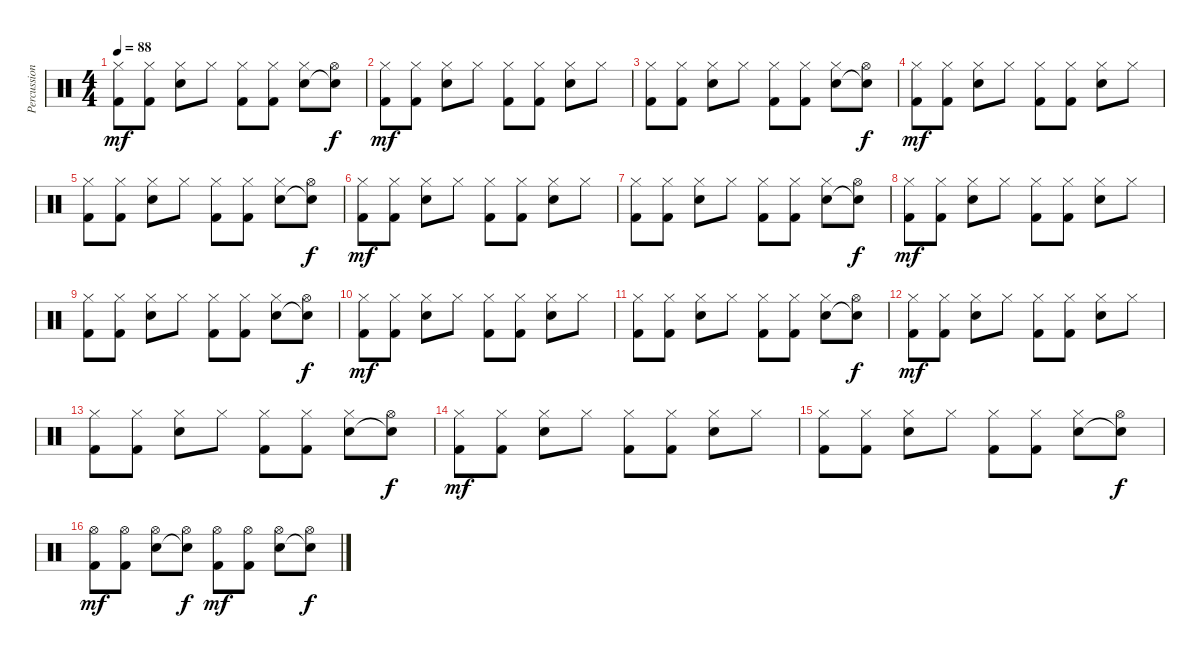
\track ("Percussions" "Percussion") {instrument percussion}
\staff {score}
\articulation defaults
\ts (4 4)
\tempo 88
\clef neutral
\ks c
("Kick (hit) 2" "Hi-Hat (closed)").8{dy mf} ("Kick (hit) 2" "Hi-Hat (closed)").8 ("Snare (hit) 2" "Hi-Hat (closed)").8 "Hi-Hat (closed)".8 ("Kick (hit) 2" "Hi-Hat (closed)").8 ("Kick (hit) 2" "Hi-Hat (closed)").8 ("Snare (hit) 2" "Hi-Hat (closed)").8 ("Snare (hit)"{t} "Hi-Hat (open)").8{dy f} |
("Kick (hit) 2" "Hi-Hat (closed)").8{dy mf} ("Kick (hit) 2" "Hi-Hat (closed)").8 ("Snare (hit) 2" "Hi-Hat (closed)").8 "Hi-Hat (closed)".8 ("Kick (hit) 2" "Hi-Hat (closed)").8 ("Kick (hit) 2" "Hi-Hat (closed)").8 ("Snare (hit) 2" "Hi-Hat (closed)").8 "Hi-Hat (closed)".8 |
("Kick (hit) 2" "Hi-Hat (closed)").8 ("Kick (hit) 2" "Hi-Hat (closed)").8 ("Snare (hit) 2" "Hi-Hat (closed)").8 "Hi-Hat (closed)".8 ("Kick (hit) 2" "Hi-Hat (closed)").8 ("Kick (hit) 2" "Hi-Hat (closed)").8 ("Snare (hit) 2" "Hi-Hat (closed)").8 ("Snare (hit)"{t} "Hi-Hat (open)").8{dy f} |
("Kick (hit) 2" "Hi-Hat (closed)").8{dy mf} ("Kick (hit) 2" "Hi-Hat (closed)").8 ("Snare (hit) 2" "Hi-Hat (closed)").8 "Hi-Hat (closed)".8 ("Kick (hit) 2" "Hi-Hat (closed)").8 ("Kick (hit) 2" "Hi-Hat (closed)").8 ("Snare (hit) 2" "Hi-Hat (closed)").8 "Hi-Hat (closed)".8 |
("Kick (hit) 2" "Hi-Hat (closed)").8 ("Kick (hit) 2" "Hi-Hat (closed)").8 ("Snare (hit) 2" "Hi-Hat (closed)").8 "Hi-Hat (closed)".8 ("Kick (hit) 2" "Hi-Hat (closed)").8 ("Kick (hit) 2" "Hi-Hat (closed)").8 ("Snare (hit) 2" "Hi-Hat (closed)").8 ("Snare (hit)"{t} "Hi-Hat (open)").8{dy f} |
("Kick (hit) 2" "Hi-Hat (closed)").8{dy mf} ("Kick (hit) 2" "Hi-Hat (closed)").8 ("Snare (hit) 2" "Hi-Hat (closed)").8 "Hi-Hat (closed)".8 ("Kick (hit) 2" "Hi-Hat (closed)").8 ("Kick (hit) 2" "Hi-Hat (closed)").8 ("Snare (hit) 2" "Hi-Hat (closed)").8 "Hi-Hat (closed)".8 |
("Kick (hit) 2" "Hi-Hat (closed)").8 ("Kick (hit) 2" "Hi-Hat (closed)").8 ("Snare (hit) 2" "Hi-Hat (closed)").8 "Hi-Hat (closed)".8 ("Kick (hit) 2" "Hi-Hat (closed)").8 ("Kick (hit) 2" "Hi-Hat (closed)").8 ("Snare (hit) 2" "Hi-Hat (closed)").8 ("Snare (hit)"{t} "Hi-Hat (open)").8{dy f} |
("Kick (hit) 2" "Hi-Hat (closed)").8{dy mf} ("Kick (hit) 2" "Hi-Hat (closed)").8 ("Snare (hit) 2" "Hi-Hat (closed)").8 "Hi-Hat (closed)".8 ("Kick (hit) 2" "Hi-Hat (closed)").8 ("Kick (hit) 2" "Hi-Hat (closed)").8 ("Snare (hit) 2" "Hi-Hat (closed)").8 "Hi-Hat (closed)".8 |
("Kick (hit) 2" "Hi-Hat (closed)").8 ("Kick (hit) 2" "Hi-Hat (closed)").8 ("Snare (hit) 2" "Hi-Hat (closed)").8 "Hi-Hat (closed)".8 ("Kick (hit) 2" "Hi-Hat (closed)").8 ("Kick (hit) 2" "Hi-Hat (closed)").8 ("Snare (hit) 2" "Hi-Hat (closed)").8 ("Snare (hit)"{t} "Hi-Hat (open)").8{dy f} |
("Kick (hit) 2" "Hi-Hat (closed)").8{dy mf} ("Kick (hit) 2" "Hi-Hat (closed)").8 ("Snare (hit) 2" "Hi-Hat (closed)").8 "Hi-Hat (closed)".8 ("Kick (hit) 2" "Hi-Hat (closed)").8 ("Kick (hit) 2" "Hi-Hat (closed)").8 ("Snare (hit) 2" "Hi-Hat (closed)").8 "Hi-Hat (closed)".8 |
("Kick (hit) 2" "Hi-Hat (closed)").8 ("Kick (hit) 2" "Hi-Hat (closed)").8 ("Snare (hit) 2" "Hi-Hat (closed)").8 "Hi-Hat (closed)".8 ("Kick (hit) 2" "Hi-Hat (closed)").8 ("Kick (hit) 2" "Hi-Hat (closed)").8 ("Snare (hit) 2" "Hi-Hat (closed)").8 ("Snare (hit)"{t} "Hi-Hat (open)").8{dy f} |
("Kick (hit) 2" "Hi-Hat (closed)").8{dy mf} ("Kick (hit) 2" "Hi-Hat (closed)").8 ("Snare (hit) 2" "Hi-Hat (closed)").8 "Hi-Hat (closed)".8 ("Kick (hit) 2" "Hi-Hat (closed)").8 ("Kick (hit) 2" "Hi-Hat (closed)").8 ("Snare (hit) 2" "Hi-Hat (closed)").8 "Hi-Hat (closed)".8 |
("Kick (hit) 2" "Hi-Hat (closed)").8 ("Kick (hit) 2" "Hi-Hat (closed)").8 ("Snare (hit) 2" "Hi-Hat (closed)").8 "Hi-Hat (closed)".8 ("Kick (hit) 2" "Hi-Hat (closed)").8 ("Kick (hit) 2" "Hi-Hat (closed)").8 ("Snare (hit) 2" "Hi-Hat (closed)").8 ("Snare (hit)"{t} "Hi-Hat (open)").8{dy f} |
("Kick (hit) 2" "Hi-Hat (closed)").8{dy mf} ("Kick (hit) 2" "Hi-Hat (closed)").8 ("Snare (hit) 2" "Hi-Hat (closed)").8 "Hi-Hat (closed)".8 ("Kick (hit) 2" "Hi-Hat (closed)").8 ("Kick (hit) 2" "Hi-Hat (closed)").8 ("Snare (hit) 2" "Hi-Hat (closed)").8 "Hi-Hat (closed)".8 |
("Kick (hit) 2" "Hi-Hat (closed)").8 ("Kick (hit) 2" "Hi-Hat (closed)").8 ("Snare (hit) 2" "Hi-Hat (closed)").8 "Hi-Hat (closed)".8 ("Kick (hit) 2" "Hi-Hat (closed)").8 ("Kick (hit) 2" "Hi-Hat (closed)").8 ("Snare (hit) 2" "Hi-Hat (closed)").8 ("Snare (hit)"{t} "Hi-Hat (open)").8{dy f} |
("Kick (hit) 2" "Hi-Hat (open)").8{dy mf} ("Kick (hit) 2" "Hi-Hat (open)").8 ("Snare (hit) 2" "Hi-Hat (open)").8 ("Snare (hit)"{t} "Hi-Hat (open)").8{dy f} ("Kick (hit) 2" "Hi-Hat (open)").8{dy mf} ("Kick (hit) 2" "Hi-Hat (open)").8 ("Snare (hit) 2" "Hi-Hat (open)").8 ("Snare (hit)"{t} "Hi-Hat (open)").8{dy f}
